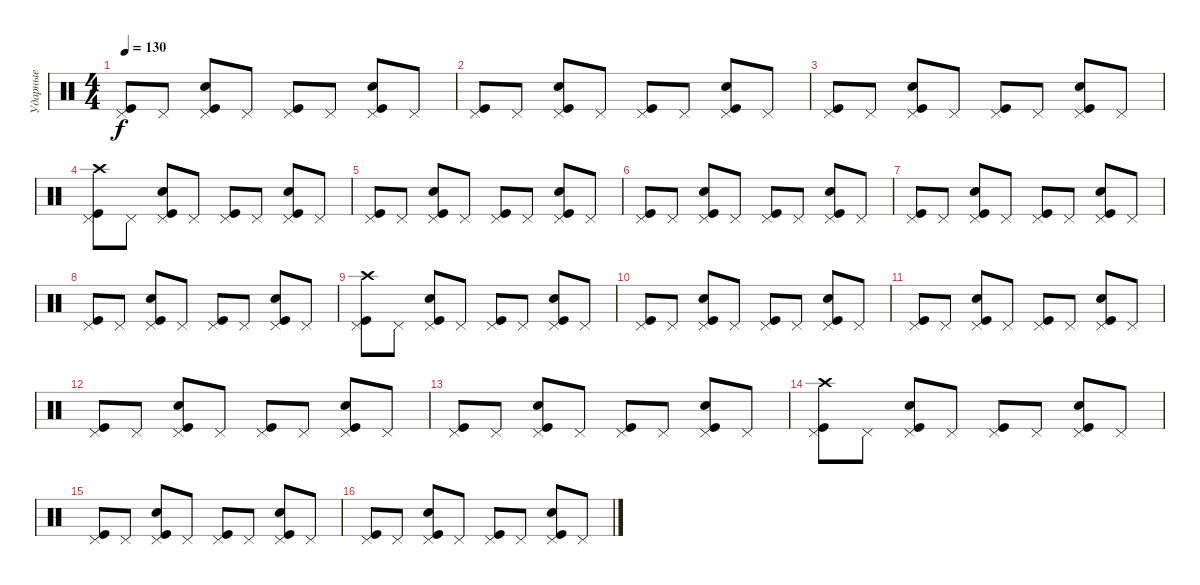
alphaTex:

\track ("Ударные" "Ударные") {instrument percussion}
\staff {score}
\articulation defaults
\ts (4 4)
\tempo 130
\clef neutral
\ks c
("Pedal Hi-Hat (hit)" "Kick (hit)").8{dy f} "Pedal Hi-Hat (hit)".8 ("Pedal Hi-Hat (hit)" "Kick (hit)" "Snare (hit) 2").8 "Pedal Hi-Hat (hit)".8 ("Pedal Hi-Hat (hit)" "Kick (hit)").8 "Pedal Hi-Hat (hit)".8 ("Pedal Hi-Hat (hit)" "Kick (hit)" "Snare (hit) 2").8 "Pedal Hi-Hat (hit)".8 |
("Pedal Hi-Hat (hit)" "Kick (hit)").8 "Pedal Hi-Hat (hit)".8 ("Pedal Hi-Hat (hit)" "Kick (hit)" "Snare (hit) 2").8 "Pedal Hi-Hat (hit)".8 ("Pedal Hi-Hat (hit)" "Kick (hit)").8 "Pedal Hi-Hat (hit)".8 ("Pedal Hi-Hat (hit)" "Kick (hit)" "Snare (hit) 2").8 "Pedal Hi-Hat (hit)".8 |
("Pedal Hi-Hat (hit)" "Kick (hit)").8 "Pedal Hi-Hat (hit)".8 ("Pedal Hi-Hat (hit)" "Kick (hit)" "Snare (hit) 2").8 "Pedal Hi-Hat (hit)".8 ("Pedal Hi-Hat (hit)" "Kick (hit)").8 "Pedal Hi-Hat (hit)".8 ("Pedal Hi-Hat (hit)" "Kick (hit)" "Snare (hit) 2").8 "Pedal Hi-Hat (hit)".8 |
("Pedal Hi-Hat (hit)" "Kick (hit)" "Crash high (hit)").8 "Pedal Hi-Hat (hit)".8 ("Pedal Hi-Hat (hit)" "Kick (hit)" "Snare (hit) 2").8 "Pedal Hi-Hat (hit)".8 ("Pedal Hi-Hat (hit)" "Kick (hit)").8 "Pedal Hi-Hat (hit)".8 ("Pedal Hi-Hat (hit)" "Kick (hit)" "Snare (hit) 2").8 "Pedal Hi-Hat (hit)".8 |
("Pedal Hi-Hat (hit)" "Kick (hit)").8 "Pedal Hi-Hat (hit)".8 ("Pedal Hi-Hat (hit)" "Kick (hit)" "Snare (hit) 2").8 "Pedal Hi-Hat (hit)".8 ("Pedal Hi-Hat (hit)" "Kick (hit)").8 "Pedal Hi-Hat (hit)".8 ("Pedal Hi-Hat (hit)" "Kick (hit)" "Snare (hit) 2").8 "Pedal Hi-Hat (hit)".8 |
("Pedal Hi-Hat (hit)" "Kick (hit)").8 "Pedal Hi-Hat (hit)".8 ("Pedal Hi-Hat (hit)" "Kick (hit)" "Snare (hit) 2").8 "Pedal Hi-Hat (hit)".8 ("Pedal Hi-Hat (hit)" "Kick (hit)").8 "Pedal Hi-Hat (hit)".8 ("Pedal Hi-Hat (hit)" "Kick (hit)" "Snare (hit) 2").8 "Pedal Hi-Hat (hit)".8 |
("Pedal Hi-Hat (hit)" "Kick (hit)").8 "Pedal Hi-Hat (hit)".8 ("Pedal Hi-Hat (hit)" "Kick (hit)" "Snare (hit) 2").8 "Pedal Hi-Hat (hit)".8 ("Pedal Hi-Hat (hit)" "Kick (hit)").8 "Pedal Hi-Hat (hit)".8 ("Pedal Hi-Hat (hit)" "Kick (hit)" "Snare (hit) 2").8 "Pedal Hi-Hat (hit)".8 |
("Pedal Hi-Hat (hit)" "Kick (hit)").8 "Pedal Hi-Hat (hit)".8 ("Pedal Hi-Hat (hit)" "Kick (hit)" "Snare (hit) 2").8 "Pedal Hi-Hat (hit)".8 ("Pedal Hi-Hat (hit)" "Kick (hit)").8 "Pedal Hi-Hat (hit)".8 ("Pedal Hi-Hat (hit)" "Kick (hit)" "Snare (hit) 2").8 "Pedal Hi-Hat (hit)".8 |
("Pedal Hi-Hat (hit)" "Kick (hit)" "Crash high (hit)").8 "Pedal Hi-Hat (hit)".8 ("Pedal Hi-Hat (hit)" "Kick (hit)" "Snare (hit) 2").8 "Pedal Hi-Hat (hit)".8 ("Pedal Hi-Hat (hit)" "Kick (hit)").8 "Pedal Hi-Hat (hit)".8 ("Pedal Hi-Hat (hit)" "Kick (hit)" "Snare (hit) 2").8 "Pedal Hi-Hat (hit)".8 |
("Pedal Hi-Hat (hit)" "Kick (hit)").8 "Pedal Hi-Hat (hit)".8 ("Pedal Hi-Hat (hit)" "Kick (hit)" "Snare (hit) 2").8 "Pedal Hi-Hat (hit)".8 ("Pedal Hi-Hat (hit)" "Kick (hit)").8 "Pedal Hi-Hat (hit)".8 ("Pedal Hi-Hat (hit)" "Kick (hit)" "Snare (hit) 2").8 "Pedal Hi-Hat (hit)".8 |
("Pedal Hi-Hat (hit)" "Kick (hit)").8 "Pedal Hi-Hat (hit)".8 ("Pedal Hi-Hat (hit)" "Kick (hit)" "Snare (hit) 2").8 "Pedal Hi-Hat (hit)".8 ("Pedal Hi-Hat (hit)" "Kick (hit)").8 "Pedal Hi-Hat (hit)".8 ("Pedal Hi-Hat (hit)" "Kick (hit)" "Snare (hit) 2").8 "Pedal Hi-Hat (hit)".8 |
("Pedal Hi-Hat (hit)" "Kick (hit)").8 "Pedal Hi-Hat (hit)".8 ("Pedal Hi-Hat (hit)" "Kick (hit)" "Snare (hit) 2").8 "Pedal Hi-Hat (hit)".8 ("Pedal Hi-Hat (hit)" "Kick (hit)").8 "Pedal Hi-Hat (hit)".8 ("Pedal Hi-Hat (hit)" "Kick (hit)" "Snare (hit) 2").8 "Pedal Hi-Hat (hit)".8 |
("Pedal Hi-Hat (hit)" "Kick (hit)").8 "Pedal Hi-Hat (hit)".8 ("Pedal Hi-Hat (hit)" "Kick (hit)" "Snare (hit) 2").8 "Pedal Hi-Hat (hit)".8 ("Pedal Hi-Hat (hit)" "Kick (hit)").8 "Pedal Hi-Hat (hit)".8 ("Pedal Hi-Hat (hit)" "Kick (hit)" "Snare (hit) 2").8 "Pedal Hi-Hat (hit)".8 |
("Pedal Hi-Hat (hit)" "Kick (hit)" "Crash high (hit)").8 "Pedal Hi-Hat (hit)".8 ("Pedal Hi-Hat (hit)" "Kick (hit)" "Snare (hit) 2").8 "Pedal Hi-Hat (hit)".8 ("Pedal Hi-Hat (hit)" "Kick (hit)").8 "Pedal Hi-Hat (hit)".8 ("Pedal Hi-Hat (hit)" "Kick (hit)" "Snare (hit) 2").8 "Pedal Hi-Hat (hit)".8 |
("Pedal Hi-Hat (hit)" "Kick (hit)").8 "Pedal Hi-Hat (hit)".8 ("Pedal Hi-Hat (hit)" "Kick (hit)" "Snare (hit) 2").8 "Pedal Hi-Hat (hit)".8 ("Pedal Hi-Hat (hit)" "Kick (hit)").8 "Pedal Hi-Hat (hit)".8 ("Pedal Hi-Hat (hit)" "Kick (hit)" "Snare (hit) 2").8 "Pedal Hi-Hat (hit)".8 |
("Pedal Hi-Hat (hit)" "Kick (hit)").8 "Pedal Hi-Hat (hit)".8 ("Pedal Hi-Hat (hit)" "Kick (hit)" "Snare (hit) 2").8 "Pedal Hi-Hat (hit)".8 ("Pedal Hi-Hat (hit)" "Kick (hit)").8 "Pedal Hi-Hat (hit)".8 ("Pedal Hi-Hat (hit)" "Kick (hit)" "Snare (hit) 2").8 "Pedal Hi-Hat (hit)".8
